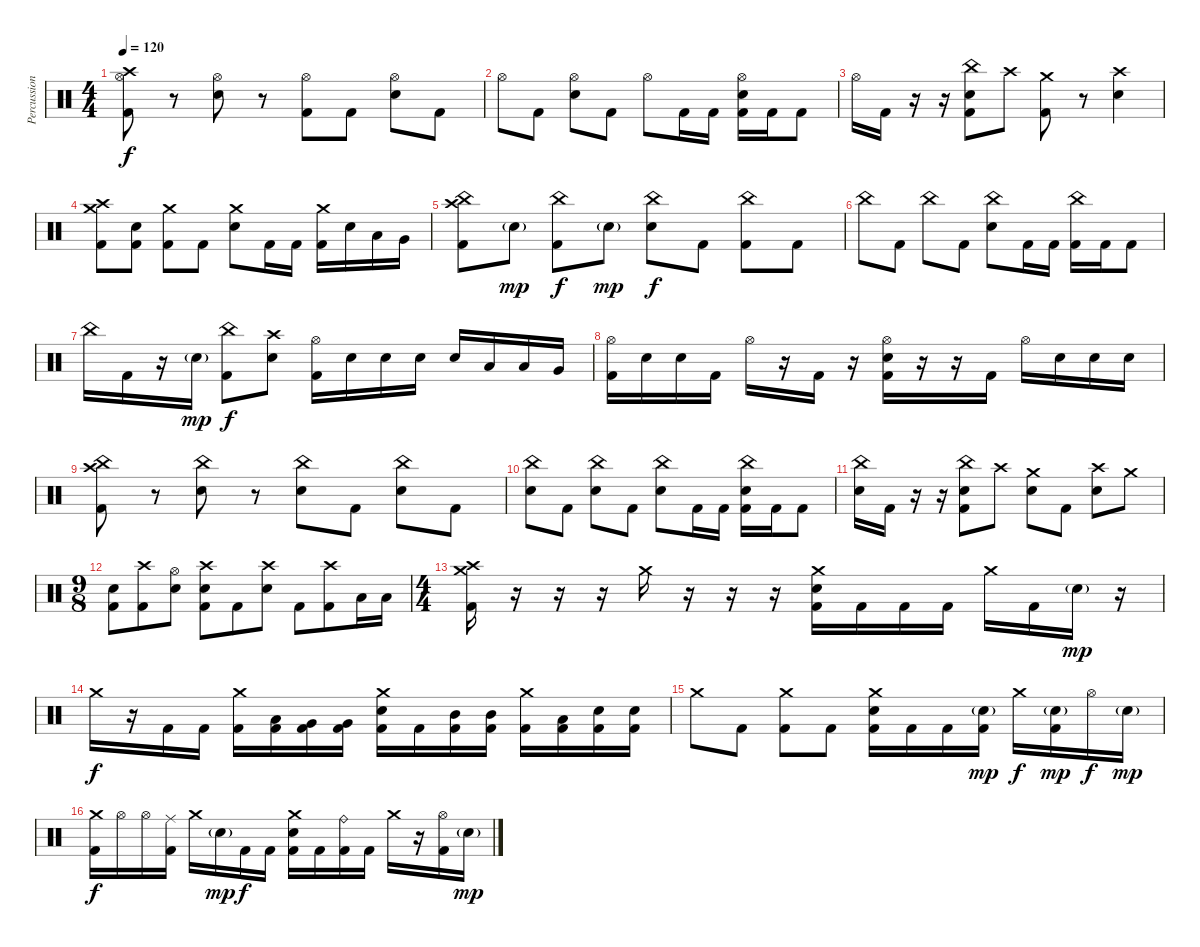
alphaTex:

\track ("Percussion" "Percussion") {instrument percussion}
\staff {score}
\articulation defaults
\ts (4 4)
\tempo 120
\clef neutral
\ks c
("Hi-Hat (open)" "Crash high (hit)" "Kick (hit) 2").8{dy f} r.8 ("Hi-Hat (open)" "Electric Snare (hit)").8 r.8 ("Hi-Hat (open)" "Kick (hit) 2").8 "Kick (hit) 2".8 ("Hi-Hat (open)" "Electric Snare (hit)").8 "Kick (hit) 2".8 |
"Hi-Hat (open)".8 "Kick (hit) 2".8 ("Hi-Hat (open)" "Electric Snare (hit)").8 "Kick (hit) 2".8 "Hi-Hat (open)".8 "Kick (hit) 2".16 "Kick (hit) 2".16 ("Hi-Hat (open)" "Electric Snare (hit)" "Kick (hit) 2").16 "Kick (hit) 2".16 "Kick (hit) 2".8 |
"Hi-Hat (open)".16 "Kick (hit) 2".16 r.16 r.16 ("China (hit)" "Electric Snare (hit)" "Kick (hit) 2").8 "Crash high (hit)".8 ("Crash medium (hit)" "Kick (hit) 2").8 r.8 ("Crash high (hit)" "Electric Snare (hit)").4 |
("Crash medium (hit)" "Crash high (hit)" "Kick (hit) 2").8 ("Electric Snare (hit)" "Kick (hit) 2").8 ("Crash medium (hit)" "Kick (hit) 2").8 "Kick (hit) 2".8 ("Crash medium (hit)" "Electric Snare (hit)").8 "Kick (hit) 2".16 "Kick (hit) 2".16 ("Crash medium (hit)" "Kick (hit) 2").16 "Electric Snare (hit)".16 "Low Tom (hit)".16 "Very Low Tom (hit)".16 |
("China (hit)" "Crash high (hit)" "Kick (hit) 2").8 "Electric Snare (hit)"{g}.8{dy mp} ("China (hit)" "Kick (hit) 2").8{dy f} "Electric Snare (hit)"{g}.8{dy mp} ("China (hit)" "Electric Snare (hit)").8{dy f} "Kick (hit) 2".8 ("China (hit)" "Kick (hit) 2").8 "Kick (hit) 2".8 |
"China (hit)".8 "Kick (hit) 2".8 "China (hit)".8 "Kick (hit) 2".8 ("China (hit)" "Electric Snare (hit)").8 "Kick (hit) 2".16 "Kick (hit) 2".16 ("China (hit)" "Kick (hit) 2").16 "Kick (hit) 2".16 "Kick (hit) 2".8 |
"China (hit)".16 "Kick (hit) 2".16 r.16 "Electric Snare (hit)"{g}.16{dy mp} ("China (hit)" "Kick (hit) 2").8{dy f} ("Crash high (hit)" "Electric Snare (hit)").8 ("Hi-Hat (open)" "Kick (hit) 2").16 "Electric Snare (hit)".16 "Electric Snare (hit)".16 "Electric Snare (hit)".16 "Electric Snare (hit)".16 "Low Tom (hit)".16 "Low Tom (hit)".16 "Very Low Tom (hit)".16 |
("Hi-Hat (open)" "Kick (hit) 2").16 "Electric Snare (hit)".16 "Electric Snare (hit)".16 "Kick (hit) 2".16 "Hi-Hat (open)".16 r.16 "Kick (hit) 2".16 r.16 ("Hi-Hat (open)" "Electric Snare (hit)" "Kick (hit) 2").16 r.16 r.16 "Kick (hit) 2".16 "Hi-Hat (open)".16 "Electric Snare (hit)".16 "Electric Snare (hit)".16 "Electric Snare (hit)".16 |
("China (hit)" "Crash high (hit)" "Kick (hit) 2").8 r.8 ("China (hit)" "Electric Snare (hit)").8 r.8 ("China (hit)" "Electric Snare (hit)").8 "Kick (hit) 2".8 ("China (hit)" "Electric Snare (hit)").8 "Kick (hit) 2".8 |
("China (hit)" "Electric Snare (hit)").8 "Kick (hit) 2".8 ("China (hit)" "Electric Snare (hit)").8 "Kick (hit) 2".8 ("China (hit)" "Electric Snare (hit)").8 "Kick (hit) 2".16 "Kick (hit) 2".16 ("China (hit)" "Electric Snare (hit)" "Kick (hit) 2").16 "Kick (hit) 2".16 "Kick (hit) 2".8 |
("China (hit)" "Electric Snare (hit)").16 "Kick (hit) 2".16 r.16 r.16 ("China (hit)" "Electric Snare (hit)" "Kick (hit) 2").8 "Crash high (hit)".8 ("Crash medium (hit)" "Electric Snare (hit)").8 "Kick (hit) 2".8 ("Crash high (hit)" "Electric Snare (hit)").8 "Crash medium (hit)".8 |
\ts (9 8)
("Electric Snare (hit)" "Kick (hit) 2").8 ("Crash high (hit)" "Kick (hit) 2").8 ("Hi-Hat (open)" "Electric Snare (hit)").8 ("Crash high (hit)" "Electric Snare (hit)" "Kick (hit) 2").8 "Kick (hit) 2".8 ("Crash high (hit)" "Electric Snare (hit)").8 "Kick (hit) 2".8 ("Crash high (hit)" "Kick (hit) 2").8 "Low Tom (hit)".16 "Low Tom (hit)".16 |
\ts (4 4)
("Crash medium (hit)" "Crash high (hit)" "Kick (hit) 2").16 r.16 r.16 r.16 "Crash medium (hit)".16 r.16 r.16 r.16 ("Crash medium (hit)" "Electric Snare (hit)" "Kick (hit) 2").16 "Kick (hit) 2".16 "Kick (hit) 2".16 "Kick (hit) 2".16 "Crash medium (hit)".16 "Kick (hit) 2".16 "Electric Snare (hit)"{g}.16{dy mp} r.16 |
"Crash medium (hit)".16{dy f} r.16 "Kick (hit) 2".16 "Kick (hit) 2".16 ("Crash medium (hit)" "Kick (hit) 2").16 ("Low Tom (hit)" "Kick (hit) 2").16 ("Very Low Tom (hit)" "Kick (hit) 2").16 ("Very Low Tom (hit)" "Kick (hit) 2").16 ("Crash medium (hit)" "Electric Snare (hit)" "Kick (hit) 2").16 "Kick (hit) 2".16 ("Mid Tom (hit)" "Kick (hit) 2").16 ("Mid Tom (hit)" "Kick (hit) 2").16 ("Crash medium (hit)" "Kick (hit) 2").16 ("Low Tom (hit)" "Kick (hit) 2").16 ("Electric Snare (hit)" "Kick (hit) 2").16 ("Electric Snare (hit)" "Kick (hit) 2").16 |
"Crash medium (hit)".8 "Kick (hit) 2".8 ("Crash medium (hit)" "Kick (hit) 2").8 "Kick (hit) 2".8 ("Crash medium (hit)" "Electric Snare (hit)" "Kick (hit) 2").16 "Kick (hit) 2".16 "Kick (hit) 2".16 ("Electric Snare (hit)"{g} "Kick (hit) 2").16{dy mp} "Crash medium (hit)".16{dy f} ("Electric Snare (hit)"{g} "Kick (hit) 2").16{dy mp} "Hi-Hat (open)".16{dy f} "Electric Snare (hit)"{g}.16{dy mp} |
("Crash medium (hit)" "Kick (hit) 2").16{dy f} "Hi-Hat (open)".16 "Hi-Hat (open)".16 ("Ride (middle)" "Kick (hit) 2").16 "Crash medium (hit)".16 "Electric Snare (hit)"{g}.16{dy mp} "Kick (hit) 2".16{dy f} "Kick (hit) 2".16 ("Crash medium (hit)" "Electric Snare (hit)" "Kick (hit) 2").16 "Kick (hit) 2".16 ("Ride (bell)" "Kick (hit) 2").16 "Kick (hit) 2".16 "Crash medium (hit)".16 r.16 ("Hi-Hat (open)" "Kick (hit) 2").16 "Electric Snare (hit)"{g}.16{dy mp}
